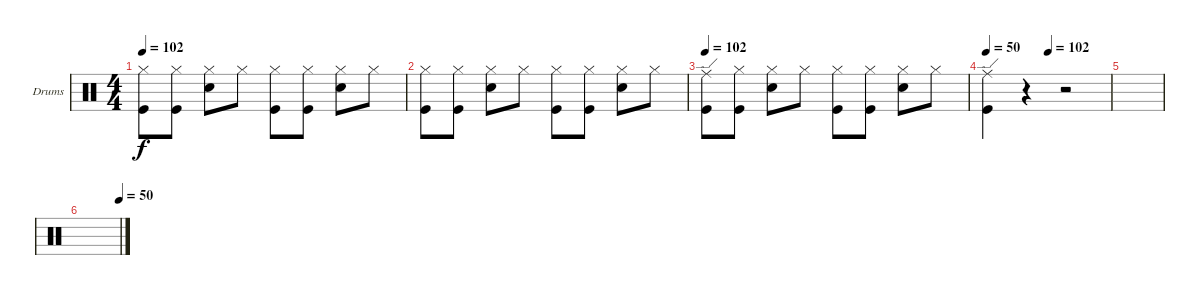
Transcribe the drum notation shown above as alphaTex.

\defaultSystemsLayout 4
\bracketExtendMode groupsimilarinstruments
\firstSystemTrackNameOrientation horizontal
\otherSystemsTrackNameOrientation horizontal
\track ("Drumkit (Bonham)" "Drums") {instrument percussion}
\staff {score}
\articulation defaults
\ts (4 4)
\tempo 102
\clef neutral
\scale
0.333333
\ks c
("Hi-Hat (closed)" "Kick (hit)").8{dy f} ("Hi-Hat (closed)" "Kick (hit)").8 ("Hi-Hat (closed)" "Snare (hit) 2").8 "Hi-Hat (closed)".8 ("Hi-Hat (closed)" "Kick (hit)").8 ("Hi-Hat (closed)" "Kick (hit)").8 ("Hi-Hat (closed)" "Snare (hit) 2").8 "Hi-Hat (closed)".8 |
\scale
0.333333 ("Hi-Hat (closed)" "Kick (hit)").8 ("Hi-Hat (closed)" "Kick (hit)").8 ("Hi-Hat (closed)" "Snare (hit) 2").8 "Hi-Hat (closed)".8 ("Hi-Hat (closed)" "Kick (hit)").8 ("Hi-Hat (closed)" "Kick (hit)").8 ("Hi-Hat (closed)" "Snare (hit) 2").8 "Hi-Hat (closed)".8 |
\tempo 102
\scale
0.333333 ("Ride (edge)" "Kick (hit)").8 ("Hi-Hat (closed)" "Kick (hit)").8 ("Hi-Hat (closed)" "Snare (hit) 2").8 "Hi-Hat (closed)".8 ("Hi-Hat (closed)" "Kick (hit)").8 ("Hi-Hat (closed)" "Kick (hit)").8 ("Hi-Hat (closed)" "Snare (hit) 2").8 "Hi-Hat (closed)".8 |
\tempo 50
\tempo (102 0.5)
\scale
0.333333 ("Ride (edge)" "Kick (hit)").4 r.4 r.2 |
\scale
0.333333 |
\tempo (50 1)
